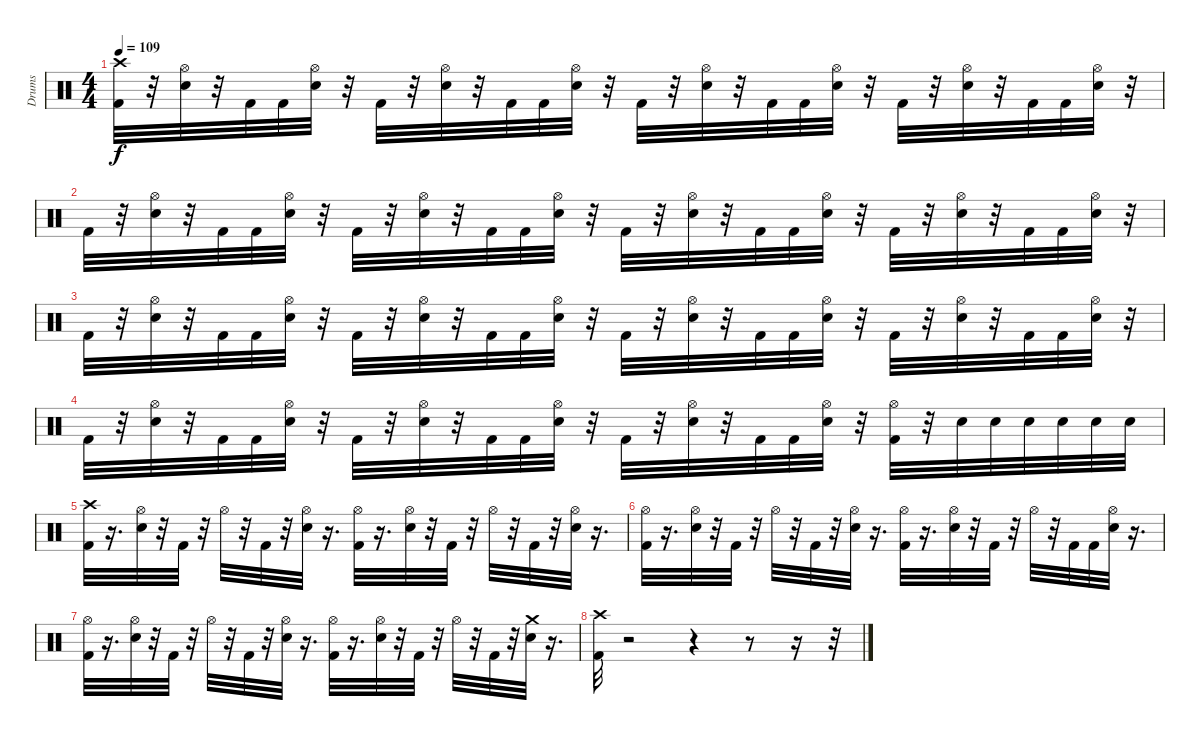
\track ("Drums" "Drums") {instrument percussion}
\staff {score}
\articulation defaults
\ts (4 4)
\tempo 109
\clef neutral
\ks c
("Crash high (hit)" "Kick (hit) 2").32{dy f} r.32 ("Hi-Hat (open)" "Electric Snare (hit)").32 r.32 "Kick (hit) 2".32 "Kick (hit) 2".32 ("Hi-Hat (open)" "Electric Snare (hit)").32 r.32 "Kick (hit) 2".32 r.32 ("Hi-Hat (open)" "Electric Snare (hit)").32 r.32 "Kick (hit) 2".32 "Kick (hit) 2".32 ("Hi-Hat (open)" "Electric Snare (hit)").32 r.32 "Kick (hit) 2".32 r.32 ("Hi-Hat (open)" "Electric Snare (hit)").32 r.32 "Kick (hit) 2".32 "Kick (hit) 2".32 ("Hi-Hat (open)" "Electric Snare (hit)").32 r.32 "Kick (hit) 2".32 r.32 ("Hi-Hat (open)" "Electric Snare (hit)").32 r.32 "Kick (hit) 2".32 "Kick (hit) 2".32 ("Hi-Hat (open)" "Electric Snare (hit)").32 r.32 |
"Kick (hit) 2".32 r.32 ("Hi-Hat (open)" "Electric Snare (hit)").32 r.32 "Kick (hit) 2".32 "Kick (hit) 2".32 ("Hi-Hat (open)" "Electric Snare (hit)").32 r.32 "Kick (hit) 2".32 r.32 ("Hi-Hat (open)" "Electric Snare (hit)").32 r.32 "Kick (hit) 2".32 "Kick (hit) 2".32 ("Hi-Hat (open)" "Electric Snare (hit)").32 r.32 "Kick (hit) 2".32 r.32 ("Hi-Hat (open)" "Electric Snare (hit)").32 r.32 "Kick (hit) 2".32 "Kick (hit) 2".32 ("Hi-Hat (open)" "Electric Snare (hit)").32 r.32 "Kick (hit) 2".32 r.32 ("Hi-Hat (open)" "Electric Snare (hit)").32 r.32 "Kick (hit) 2".32 "Kick (hit) 2".32 ("Hi-Hat (open)" "Electric Snare (hit)").32 r.32 |
"Kick (hit) 2".32 r.32 ("Hi-Hat (open)" "Electric Snare (hit)").32 r.32 "Kick (hit) 2".32 "Kick (hit) 2".32 ("Hi-Hat (open)" "Electric Snare (hit)").32 r.32 "Kick (hit) 2".32 r.32 ("Hi-Hat (open)" "Electric Snare (hit)").32 r.32 "Kick (hit) 2".32 "Kick (hit) 2".32 ("Hi-Hat (open)" "Electric Snare (hit)").32 r.32 "Kick (hit) 2".32 r.32 ("Hi-Hat (open)" "Electric Snare (hit)").32 r.32 "Kick (hit) 2".32 "Kick (hit) 2".32 ("Hi-Hat (open)" "Electric Snare (hit)").32 r.32 "Kick (hit) 2".32 r.32 ("Hi-Hat (open)" "Electric Snare (hit)").32 r.32 "Kick (hit) 2".32 "Kick (hit) 2".32 ("Hi-Hat (open)" "Electric Snare (hit)").32 r.32 |
"Kick (hit) 2".32 r.32 ("Hi-Hat (open)" "Electric Snare (hit)").32 r.32 "Kick (hit) 2".32 "Kick (hit) 2".32 ("Hi-Hat (open)" "Electric Snare (hit)").32 r.32 "Kick (hit) 2".32 r.32 ("Hi-Hat (open)" "Electric Snare (hit)").32 r.32 "Kick (hit) 2".32 "Kick (hit) 2".32 ("Hi-Hat (open)" "Electric Snare (hit)").32 r.32 "Kick (hit) 2".32 r.32 ("Hi-Hat (open)" "Electric Snare (hit)").32 r.32 "Kick (hit) 2".32 "Kick (hit) 2".32 ("Hi-Hat (open)" "Electric Snare (hit)").32 r.32 ("Hi-Hat (open)" "Kick (hit) 2").32 r.32 "Electric Snare (hit)".32 "Electric Snare (hit)".32 "Electric Snare (hit)".32 "Electric Snare (hit)".32 "Electric Snare (hit)".32 "Electric Snare (hit)".32 |
("Crash high (hit)" "Kick (hit) 2").32 r.16{d} ("Hi-Hat (open)" "Electric Snare (hit)").32 r.32 "Kick (hit) 2".32 r.32 "Hi-Hat (open)".32 r.32 "Kick (hit) 2".32 r.32 ("Hi-Hat (open)" "Electric Snare (hit)").32 r.16{d} ("Hi-Hat (open)" "Kick (hit) 2").32 r.16{d} ("Hi-Hat (open)" "Electric Snare (hit)").32 r.32 "Kick (hit) 2".32 r.32 "Hi-Hat (open)".32 r.32 "Kick (hit) 2".32 r.32 ("Hi-Hat (open)" "Electric Snare (hit)").32 r.16{d} |
("Hi-Hat (open)" "Kick (hit) 2").32 r.16{d} ("Hi-Hat (open)" "Electric Snare (hit)").32 r.32 "Kick (hit) 2".32 r.32 "Hi-Hat (open)".32 r.32 "Kick (hit) 2".32 r.32 ("Hi-Hat (open)" "Electric Snare (hit)").32 r.16{d} ("Hi-Hat (open)" "Kick (hit) 2").32 r.16{d} ("Hi-Hat (open)" "Electric Snare (hit)").32 r.32 "Kick (hit) 2".32 r.32 "Hi-Hat (open)".32 r.32 "Kick (hit) 2".32 "Kick (hit) 2".32 ("Hi-Hat (open)" "Electric Snare (hit)").32 r.16{d} |
("Hi-Hat (open)" "Kick (hit) 2").32 r.16{d} ("Hi-Hat (open)" "Electric Snare (hit)").32 r.32 "Kick (hit) 2".32 r.32 "Hi-Hat (open)".32 r.32 "Kick (hit) 2".32 r.32 ("Hi-Hat (open)" "Electric Snare (hit)").32 r.16{d} ("Hi-Hat (open)" "Kick (hit) 2").32 r.16{d} ("Hi-Hat (open)" "Electric Snare (hit)").32 r.32 "Kick (hit) 2".32 r.32 "Hi-Hat (open)".32 r.32 "Kick (hit) 2".32 r.32 ("Crash medium (hit)" "Electric Snare (hit)").32 r.16{d} |
("Crash high (hit)" "Kick (hit) 2").32 r.2 r.4 r.8 r.16 r.32
